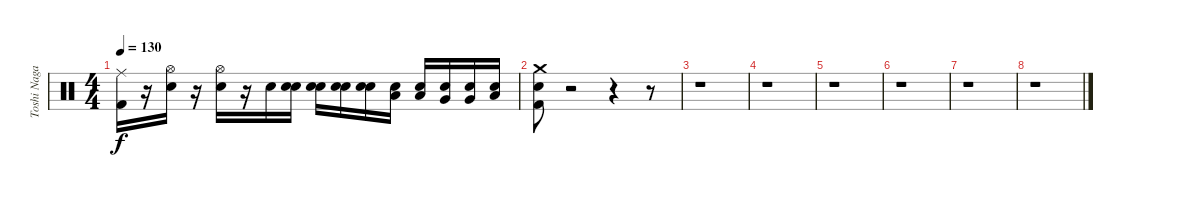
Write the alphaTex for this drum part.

\track ("Toshi Nagai" "Toshi Naga") {instrument percussion}
\staff {score}
\articulation defaults
\ts (4 4)
\tempo 130
\clef neutral
\ks c
("Kick (hit) 2" "Ride (middle)").16{dy f} r.16 ("Hi-Hat (open)" "Electric Snare (hit)").16 r.16 ("Hi-Hat (open)" "Electric Snare (hit)").16 r.16 "Electric Snare (hit)".16 ("Snare (hit)" "Electric Snare (hit)").16 ("Snare (hit)" "Electric Snare (hit)").16 ("Snare (hit)" "Electric Snare (hit)").16 ("Snare (hit)" "Electric Snare (hit)").16 ("Snare (hit)" "Low Tom (hit)").16 ("Snare (hit)" "Low Tom (hit)").16 ("Snare (hit)" "Very Low Tom (hit)").16 ("Snare (hit)" "Very Low Tom (hit)").16 ("Snare (hit)" "Low Floor Tom (hit)").16 |
("Snare (hit)" "Kick (hit) 2" "Crash medium (hit)").8 r.2 r.4 r.8 |
r.1 |
r.1 |
r.1 |
r.1 |
r.1 |
r.1
